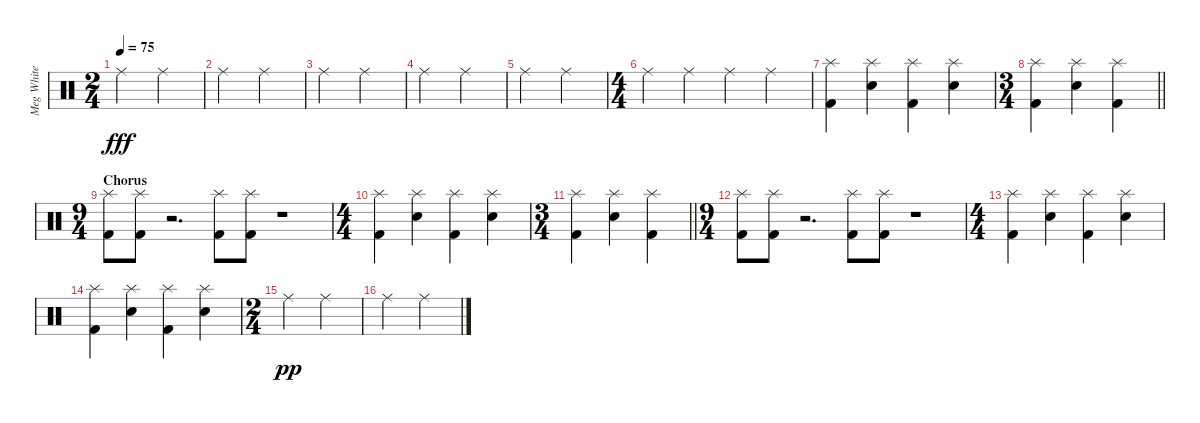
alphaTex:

\track ("Meg White (Drums)" "Meg White ") {instrument percussion}
\staff {score}
\articulation defaults
\ts (2 4)
\tempo 75
\clef neutral
\ks c "Ride (middle)".4{dy fff} "Ride (middle)".4
|
"Ride (middle)".4 "Ride (middle)".4 |
"Ride (middle)".4 "Ride (middle)".4 |
"Ride (middle)".4 "Ride (middle)".4 |
"Ride (middle)".4 "Ride (middle)".4 |
\ts (4 4)
"Ride (middle)".4 "Ride (middle)".4 "Ride (middle)".4 "Ride (middle)".4 |
("Kick (hit) 2" "Splash (hit)").4 ("Electric Snare (hit)" "Splash (hit)").4 ("Kick (hit) 2" "Splash (hit)").4 ("Electric Snare (hit)" "Splash (hit)").4 |
\ts (3 4)
\barLineRight lightlight
("Kick (hit) 2" "Splash (hit)").4 ("Electric Snare (hit)" "Splash (hit)").4 ("Kick (hit) 2" "Splash (hit)").4 |
\ts (9 4)
\section ("" "Chorus")
("Kick (hit) 2" "Splash (hit)").8 ("Kick (hit) 2" "Splash (hit)").8 r.2{d} ("Kick (hit) 2" "Splash (hit)").8 ("Kick (hit) 2" "Splash (hit)").8 r.1 |
\ts (4 4)
("Kick (hit) 2" "Splash (hit)").4 ("Electric Snare (hit)" "Splash (hit)").4 ("Kick (hit) 2" "Splash (hit)").4 ("Electric Snare (hit)" "Splash (hit)").4 |
\ts (3 4)
\barLineRight lightlight
("Kick (hit) 2" "Splash (hit)").4 ("Electric Snare (hit)" "Splash (hit)").4 ("Kick (hit) 2" "Splash (hit)").4 |
\ts (9 4)
("Kick (hit) 2" "Splash (hit)").8 ("Kick (hit) 2" "Splash (hit)").8 r.2{d} ("Kick (hit) 2" "Splash (hit)").8 ("Kick (hit) 2" "Splash (hit)").8 r.1 |
\ts (4 4)
("Kick (hit) 2" "Splash (hit)").4 ("Electric Snare (hit)" "Splash (hit)").4 ("Kick (hit) 2" "Splash (hit)").4 ("Electric Snare (hit)" "Splash (hit)").4 |
("Kick (hit) 2" "Splash (hit)").4 ("Electric Snare (hit)" "Splash (hit)").4 ("Kick (hit) 2" "Splash (hit)").4 ("Electric Snare (hit)" "Splash (hit)").4 |
\ts (2 4)
"Ride (middle)".4{dy pp} "Ride (middle)".4 |
"Ride (middle)".4 "Ride (middle)".4
